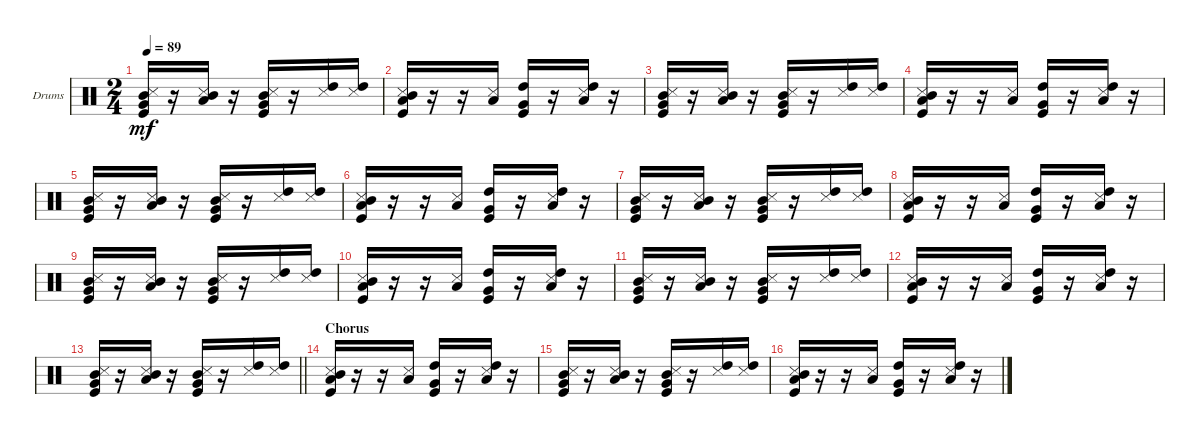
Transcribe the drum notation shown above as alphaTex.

\bracketExtendMode groupsimilarinstruments
\firstSystemTrackNameOrientation horizontal
\otherSystemsTrackNameOrientation horizontal
\track ("Ryo" "Drums") {instrument percussion}
\staff {score}
\articulation defaults
\ts (2 4)
\tempo 89
\clef neutral
\ks c
("Kick (hit)" "Very Low Tom (hit)" "Snare (side stick) 3" "Mid Tom (hit)").16{dy mf} r.16 ("Mid Tom (hit)" "Low Tom (hit)" "Snare (side stick) 3").16 r.16 ("Kick (hit)" "Very Low Tom (hit)" "Snare (side stick) 3" "Mid Tom (hit)").16 r.16 ("High Tom (hit)" "Snare (side stick) 3").16 ("High Tom (hit)" "Snare (side stick) 3").16 |
("Kick (hit)" "Low Tom (hit)" "Snare (side stick) 3" "Mid Tom (hit)").16 r.16 r.16 ("Low Tom (hit)" "Snare (side stick) 3").16 ("Kick (hit)" "Very Low Tom (hit)" "High Tom (hit)").16 r.16 ("Low Tom (hit)" "High Tom (hit)" "Snare (side stick) 3").16 r.16 |
("Kick (hit)" "Very Low Tom (hit)" "Snare (side stick) 3" "Mid Tom (hit)").16 r.16 ("Mid Tom (hit)" "Low Tom (hit)" "Snare (side stick) 3").16 r.16 ("Kick (hit)" "Very Low Tom (hit)" "Snare (side stick) 3" "Mid Tom (hit)").16 r.16 ("High Tom (hit)" "Snare (side stick) 3").16 ("High Tom (hit)" "Snare (side stick) 3").16 |
("Kick (hit)" "Low Tom (hit)" "Snare (side stick) 3" "Mid Tom (hit)").16 r.16 r.16 ("Low Tom (hit)" "Snare (side stick) 3").16 ("Kick (hit)" "Very Low Tom (hit)" "High Tom (hit)").16 r.16 ("Low Tom (hit)" "High Tom (hit)" "Snare (side stick) 3").16 r.16 |
("Kick (hit)" "Very Low Tom (hit)" "Snare (side stick) 3" "Mid Tom (hit)").16 r.16 ("Mid Tom (hit)" "Low Tom (hit)" "Snare (side stick) 3").16 r.16 ("Kick (hit)" "Very Low Tom (hit)" "Snare (side stick) 3" "Mid Tom (hit)").16 r.16 ("High Tom (hit)" "Snare (side stick) 3").16 ("High Tom (hit)" "Snare (side stick) 3").16 |
("Kick (hit)" "Low Tom (hit)" "Snare (side stick) 3" "Mid Tom (hit)").16 r.16 r.16 ("Low Tom (hit)" "Snare (side stick) 3").16 ("Kick (hit)" "Very Low Tom (hit)" "High Tom (hit)").16 r.16 ("Low Tom (hit)" "High Tom (hit)" "Snare (side stick) 3").16 r.16 |
("Kick (hit)" "Very Low Tom (hit)" "Snare (side stick) 3" "Mid Tom (hit)").16 r.16 ("Mid Tom (hit)" "Low Tom (hit)" "Snare (side stick) 3").16 r.16 ("Kick (hit)" "Very Low Tom (hit)" "Snare (side stick) 3" "Mid Tom (hit)").16 r.16 ("High Tom (hit)" "Snare (side stick) 3").16 ("High Tom (hit)" "Snare (side stick) 3").16 |
("Kick (hit)" "Low Tom (hit)" "Snare (side stick) 3" "Mid Tom (hit)").16 r.16 r.16 ("Low Tom (hit)" "Snare (side stick) 3").16 ("Kick (hit)" "Very Low Tom (hit)" "High Tom (hit)").16 r.16 ("Low Tom (hit)" "High Tom (hit)" "Snare (side stick) 3").16 r.16 |
("Kick (hit)" "Very Low Tom (hit)" "Snare (side stick) 3" "Mid Tom (hit)").16 r.16 ("Mid Tom (hit)" "Low Tom (hit)" "Snare (side stick) 3").16 r.16 ("Kick (hit)" "Very Low Tom (hit)" "Snare (side stick) 3" "Mid Tom (hit)").16 r.16 ("High Tom (hit)" "Snare (side stick) 3").16 ("High Tom (hit)" "Snare (side stick) 3").16 |
("Kick (hit)" "Low Tom (hit)" "Snare (side stick) 3" "Mid Tom (hit)").16 r.16 r.16 ("Low Tom (hit)" "Snare (side stick) 3").16 ("Kick (hit)" "Very Low Tom (hit)" "High Tom (hit)").16 r.16 ("Low Tom (hit)" "High Tom (hit)" "Snare (side stick) 3").16 r.16 |
("Kick (hit)" "Very Low Tom (hit)" "Snare (side stick) 3" "Mid Tom (hit)").16 r.16 ("Mid Tom (hit)" "Low Tom (hit)" "Snare (side stick) 3").16 r.16 ("Kick (hit)" "Very Low Tom (hit)" "Snare (side stick) 3" "Mid Tom (hit)").16 r.16 ("High Tom (hit)" "Snare (side stick) 3").16 ("High Tom (hit)" "Snare (side stick) 3").16 |
("Kick (hit)" "Low Tom (hit)" "Snare (side stick) 3" "Mid Tom (hit)").16 r.16 r.16 ("Low Tom (hit)" "Snare (side stick) 3").16 ("Kick (hit)" "Very Low Tom (hit)" "High Tom (hit)").16 r.16 ("Low Tom (hit)" "High Tom (hit)" "Snare (side stick) 3").16 r.16 |
\barLineRight lightlight
("Kick (hit)" "Very Low Tom (hit)" "Snare (side stick) 3" "Mid Tom (hit)").16 r.16 ("Mid Tom (hit)" "Low Tom (hit)" "Snare (side stick) 3").16 r.16 ("Kick (hit)" "Very Low Tom (hit)" "Snare (side stick) 3" "Mid Tom (hit)").16 r.16 ("High Tom (hit)" "Snare (side stick) 3").16 ("High Tom (hit)" "Snare (side stick) 3").16 |
\section ("" "Chorus")
("Kick (hit)" "Low Tom (hit)" "Snare (side stick) 3" "Mid Tom (hit)").16 r.16 r.16 ("Low Tom (hit)" "Snare (side stick) 3").16 ("Kick (hit)" "Very Low Tom (hit)" "High Tom (hit)").16 r.16 ("Low Tom (hit)" "High Tom (hit)" "Snare (side stick) 3").16 r.16 |
("Kick (hit)" "Very Low Tom (hit)" "Snare (side stick) 3" "Mid Tom (hit)").16 r.16 ("Mid Tom (hit)" "Low Tom (hit)" "Snare (side stick) 3").16 r.16 ("Kick (hit)" "Very Low Tom (hit)" "Snare (side stick) 3" "Mid Tom (hit)").16 r.16 ("High Tom (hit)" "Snare (side stick) 3").16 ("High Tom (hit)" "Snare (side stick) 3").16 |
("Kick (hit)" "Low Tom (hit)" "Snare (side stick) 3" "Mid Tom (hit)").16 r.16 r.16 ("Low Tom (hit)" "Snare (side stick) 3").16 ("Kick (hit)" "Very Low Tom (hit)" "High Tom (hit)").16 r.16 ("Low Tom (hit)" "High Tom (hit)" "Snare (side stick) 3").16 r.16
